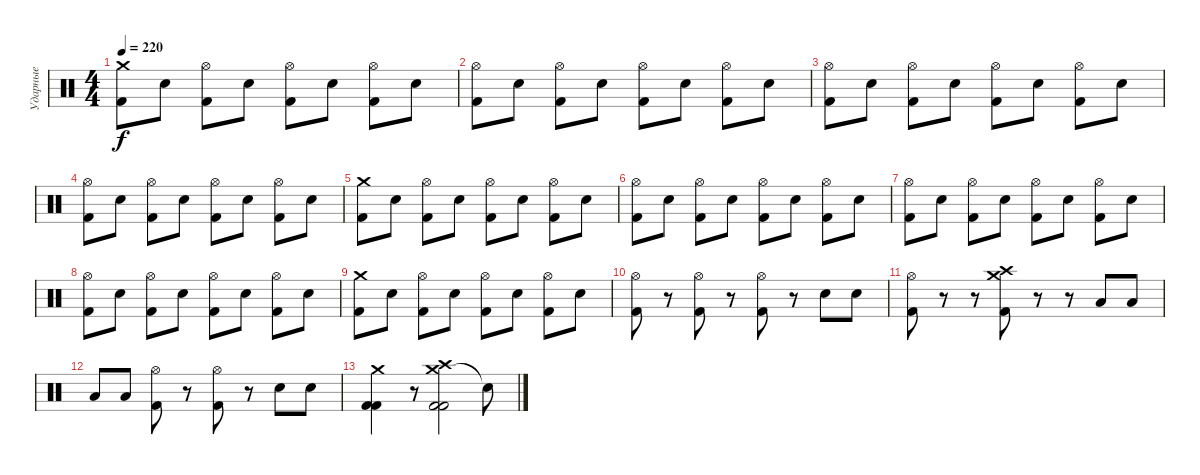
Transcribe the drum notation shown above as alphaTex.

\track ("Ударные" "Ударные") {instrument percussion}
\staff {score}
\articulation defaults
\ts (4 4)
\tempo 220
\clef neutral
\ks c
("Crash medium (hit)" "Kick (hit) 2").8{dy f} "Electric Snare (hit)".8 ("Hi-Hat (open)" "Kick (hit) 2").8 "Electric Snare (hit)".8 ("Hi-Hat (open)" "Kick (hit) 2").8 "Electric Snare (hit)".8 ("Hi-Hat (open)" "Kick (hit) 2").8 "Electric Snare (hit)".8 |
("Hi-Hat (open)" "Kick (hit) 2").8 "Electric Snare (hit)".8 ("Hi-Hat (open)" "Kick (hit) 2").8 "Electric Snare (hit)".8 ("Hi-Hat (open)" "Kick (hit) 2").8 "Electric Snare (hit)".8 ("Hi-Hat (open)" "Kick (hit) 2").8 "Electric Snare (hit)".8 |
("Hi-Hat (open)" "Kick (hit) 2").8 "Electric Snare (hit)".8 ("Hi-Hat (open)" "Kick (hit) 2").8 "Electric Snare (hit)".8 ("Hi-Hat (open)" "Kick (hit) 2").8 "Electric Snare (hit)".8 ("Hi-Hat (open)" "Kick (hit) 2").8 "Electric Snare (hit)".8 |
("Hi-Hat (open)" "Kick (hit) 2").8 "Electric Snare (hit)".8 ("Hi-Hat (open)" "Kick (hit) 2").8 "Electric Snare (hit)".8 ("Hi-Hat (open)" "Kick (hit) 2").8 "Electric Snare (hit)".8 ("Hi-Hat (open)" "Kick (hit) 2").8 "Electric Snare (hit)".8 |
("Crash medium (hit)" "Kick (hit) 2").8 "Electric Snare (hit)".8 ("Hi-Hat (open)" "Kick (hit) 2").8 "Electric Snare (hit)".8 ("Hi-Hat (open)" "Kick (hit) 2").8 "Electric Snare (hit)".8 ("Hi-Hat (open)" "Kick (hit) 2").8 "Electric Snare (hit)".8 |
("Hi-Hat (open)" "Kick (hit) 2").8 "Electric Snare (hit)".8 ("Hi-Hat (open)" "Kick (hit) 2").8 "Electric Snare (hit)".8 ("Hi-Hat (open)" "Kick (hit) 2").8 "Electric Snare (hit)".8 ("Hi-Hat (open)" "Kick (hit) 2").8 "Electric Snare (hit)".8 |
("Hi-Hat (open)" "Kick (hit) 2").8 "Electric Snare (hit)".8 ("Hi-Hat (open)" "Kick (hit) 2").8 "Electric Snare (hit)".8 ("Hi-Hat (open)" "Kick (hit) 2").8 "Electric Snare (hit)".8 ("Hi-Hat (open)" "Kick (hit) 2").8 "Electric Snare (hit)".8 |
("Hi-Hat (open)" "Kick (hit) 2").8 "Electric Snare (hit)".8 ("Hi-Hat (open)" "Kick (hit) 2").8 "Electric Snare (hit)".8 ("Hi-Hat (open)" "Kick (hit) 2").8 "Electric Snare (hit)".8 ("Hi-Hat (open)" "Kick (hit) 2").8 "Electric Snare (hit)".8 |
("Crash medium (hit)" "Kick (hit) 2").8 "Electric Snare (hit)".8 ("Hi-Hat (open)" "Kick (hit) 2").8 "Electric Snare (hit)".8 ("Hi-Hat (open)" "Kick (hit) 2").8 "Electric Snare (hit)".8 ("Hi-Hat (open)" "Kick (hit) 2").8 "Electric Snare (hit)".8 |
("Hi-Hat (open)" "Kick (hit) 2").8 r.8 ("Hi-Hat (open)" "Kick (hit) 2").8 r.8 ("Hi-Hat (open)" "Kick (hit) 2").8 r.8 "Electric Snare (hit)".8 "Electric Snare (hit)".8 |
("Hi-Hat (open)" "Kick (hit) 2").8 r.8 r.8 ("Crash high (hit)" "Crash medium (hit)" "Kick (hit) 2").8 r.8 r.8 "Low Tom (hit)".8 "Low Tom (hit)".8 |
"Low Tom (hit)".8 "Low Tom (hit)".8 ("Hi-Hat (open)" "Kick (hit) 2").8 r.8 ("Hi-Hat (open)" "Kick (hit) 2").8 r.8 "Electric Snare (hit)".8 "Electric Snare (hit)".8 |
("Crash medium (hit)" "Kick (hit) 2" "Kick (hit) 2").4 r.8 ("Crash medium (hit)" "Crash high (hit)" "Kick (hit) 2" "Kick (hit) 2").2 "Snare (hit)"{t}.8
